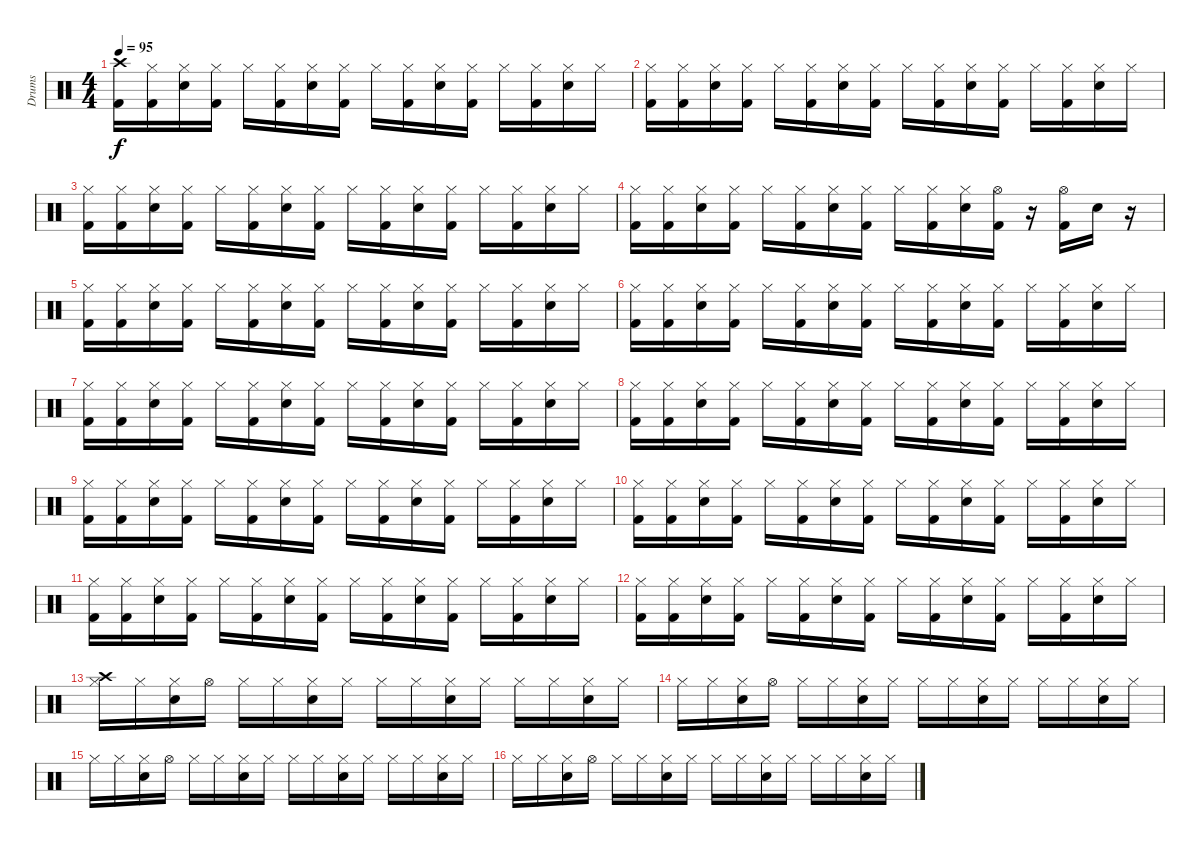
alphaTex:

\track ("Drums" "Drums") {instrument percussion}
\staff {score}
\articulation defaults
\ts (4 4)
\tempo 95
\clef neutral
\ks c
("Crash high (hit)" "Kick (hit) 2").16{dy f} ("Hi-Hat (closed)" "Kick (hit) 2").16 ("Hi-Hat (closed)" "Electric Snare (hit)").16 ("Hi-Hat (closed)" "Kick (hit) 2").16 "Hi-Hat (closed)".16 ("Hi-Hat (closed)" "Kick (hit) 2").16 ("Hi-Hat (closed)" "Electric Snare (hit)").16 ("Hi-Hat (closed)" "Kick (hit) 2").16 "Hi-Hat (closed)".16 ("Hi-Hat (closed)" "Kick (hit) 2").16 ("Hi-Hat (closed)" "Electric Snare (hit)").16 ("Hi-Hat (closed)" "Kick (hit) 2").16 "Hi-Hat (closed)".16 ("Hi-Hat (closed)" "Kick (hit) 2").16 ("Hi-Hat (closed)" "Electric Snare (hit)").16 "Hi-Hat (closed)".16 |
("Hi-Hat (closed)" "Kick (hit) 2").16 ("Hi-Hat (closed)" "Kick (hit) 2").16 ("Hi-Hat (closed)" "Electric Snare (hit)").16 ("Hi-Hat (closed)" "Kick (hit) 2").16 "Hi-Hat (closed)".16 ("Hi-Hat (closed)" "Kick (hit) 2").16 ("Hi-Hat (closed)" "Electric Snare (hit)").16 ("Hi-Hat (closed)" "Kick (hit) 2").16 "Hi-Hat (closed)".16 ("Hi-Hat (closed)" "Kick (hit) 2").16 ("Hi-Hat (closed)" "Electric Snare (hit)").16 ("Hi-Hat (closed)" "Kick (hit) 2").16 "Hi-Hat (closed)".16 ("Hi-Hat (closed)" "Kick (hit) 2").16 ("Hi-Hat (closed)" "Electric Snare (hit)").16 "Hi-Hat (closed)".16 |
("Hi-Hat (closed)" "Kick (hit) 2").16 ("Hi-Hat (closed)" "Kick (hit) 2").16 ("Hi-Hat (closed)" "Electric Snare (hit)").16 ("Hi-Hat (closed)" "Kick (hit) 2").16 "Hi-Hat (closed)".16 ("Hi-Hat (closed)" "Kick (hit) 2").16 ("Hi-Hat (closed)" "Electric Snare (hit)").16 ("Hi-Hat (closed)" "Kick (hit) 2").16 "Hi-Hat (closed)".16 ("Hi-Hat (closed)" "Kick (hit) 2").16 ("Hi-Hat (closed)" "Electric Snare (hit)").16 ("Hi-Hat (closed)" "Kick (hit) 2").16 "Hi-Hat (closed)".16 ("Hi-Hat (closed)" "Kick (hit) 2").16 ("Hi-Hat (closed)" "Electric Snare (hit)").16 "Hi-Hat (closed)".16 |
("Hi-Hat (closed)" "Kick (hit) 2").16 ("Hi-Hat (closed)" "Kick (hit) 2").16 ("Hi-Hat (closed)" "Electric Snare (hit)").16 ("Hi-Hat (closed)" "Kick (hit) 2").16 "Hi-Hat (closed)".16 ("Hi-Hat (closed)" "Kick (hit) 2").16 ("Hi-Hat (closed)" "Electric Snare (hit)").16 ("Hi-Hat (closed)" "Kick (hit) 2").16 "Hi-Hat (closed)".16 ("Hi-Hat (closed)" "Kick (hit) 2").16 ("Hi-Hat (closed)" "Electric Snare (hit)").16 ("Hi-Hat (open)" "Kick (hit) 2").16 r.16 ("Hi-Hat (open)" "Kick (hit) 2").16 "Electric Snare (hit)".16 r.16 |
("Hi-Hat (closed)" "Kick (hit) 2").16 ("Hi-Hat (closed)" "Kick (hit) 2").16 ("Hi-Hat (closed)" "Electric Snare (hit)").16 ("Hi-Hat (closed)" "Kick (hit) 2").16 "Hi-Hat (closed)".16 ("Hi-Hat (closed)" "Kick (hit) 2").16 ("Hi-Hat (closed)" "Electric Snare (hit)").16 ("Hi-Hat (closed)" "Kick (hit) 2").16 "Hi-Hat (closed)".16 ("Hi-Hat (closed)" "Kick (hit) 2").16 ("Hi-Hat (closed)" "Electric Snare (hit)").16 ("Hi-Hat (closed)" "Kick (hit) 2").16 "Hi-Hat (closed)".16 ("Hi-Hat (closed)" "Kick (hit) 2").16 ("Hi-Hat (closed)" "Electric Snare (hit)").16 "Hi-Hat (closed)".16 |
("Hi-Hat (closed)" "Kick (hit) 2").16 ("Hi-Hat (closed)" "Kick (hit) 2").16 ("Hi-Hat (closed)" "Electric Snare (hit)").16 ("Hi-Hat (closed)" "Kick (hit) 2").16 "Hi-Hat (closed)".16 ("Hi-Hat (closed)" "Kick (hit) 2").16 ("Hi-Hat (closed)" "Electric Snare (hit)").16 ("Hi-Hat (closed)" "Kick (hit) 2").16 "Hi-Hat (closed)".16 ("Hi-Hat (closed)" "Kick (hit) 2").16 ("Hi-Hat (closed)" "Electric Snare (hit)").16 ("Hi-Hat (closed)" "Kick (hit) 2").16 "Hi-Hat (closed)".16 ("Hi-Hat (closed)" "Kick (hit) 2").16 ("Hi-Hat (closed)" "Electric Snare (hit)").16 "Hi-Hat (closed)".16 |
("Hi-Hat (closed)" "Kick (hit) 2").16 ("Hi-Hat (closed)" "Kick (hit) 2").16 ("Hi-Hat (closed)" "Electric Snare (hit)").16 ("Hi-Hat (closed)" "Kick (hit) 2").16 "Hi-Hat (closed)".16 ("Hi-Hat (closed)" "Kick (hit) 2").16 ("Hi-Hat (closed)" "Electric Snare (hit)").16 ("Hi-Hat (closed)" "Kick (hit) 2").16 "Hi-Hat (closed)".16 ("Hi-Hat (closed)" "Kick (hit) 2").16 ("Hi-Hat (closed)" "Electric Snare (hit)").16 ("Hi-Hat (closed)" "Kick (hit) 2").16 "Hi-Hat (closed)".16 ("Hi-Hat (closed)" "Kick (hit) 2").16 ("Hi-Hat (closed)" "Electric Snare (hit)").16 "Hi-Hat (closed)".16 |
("Hi-Hat (closed)" "Kick (hit) 2").16 ("Hi-Hat (closed)" "Kick (hit) 2").16 ("Hi-Hat (closed)" "Electric Snare (hit)").16 ("Hi-Hat (closed)" "Kick (hit) 2").16 "Hi-Hat (closed)".16 ("Hi-Hat (closed)" "Kick (hit) 2").16 ("Hi-Hat (closed)" "Electric Snare (hit)").16 ("Hi-Hat (closed)" "Kick (hit) 2").16 "Hi-Hat (closed)".16 ("Hi-Hat (closed)" "Kick (hit) 2").16 ("Hi-Hat (closed)" "Electric Snare (hit)").16 ("Hi-Hat (closed)" "Kick (hit) 2").16 "Hi-Hat (closed)".16 ("Hi-Hat (closed)" "Kick (hit) 2").16 ("Hi-Hat (closed)" "Electric Snare (hit)").16 "Hi-Hat (closed)".16 |
("Hi-Hat (closed)" "Kick (hit) 2").16 ("Hi-Hat (closed)" "Kick (hit) 2").16 ("Hi-Hat (closed)" "Electric Snare (hit)").16 ("Hi-Hat (closed)" "Kick (hit) 2").16 "Hi-Hat (closed)".16 ("Hi-Hat (closed)" "Kick (hit) 2").16 ("Hi-Hat (closed)" "Electric Snare (hit)").16 ("Hi-Hat (closed)" "Kick (hit) 2").16 "Hi-Hat (closed)".16 ("Hi-Hat (closed)" "Kick (hit) 2").16 ("Hi-Hat (closed)" "Electric Snare (hit)").16 ("Hi-Hat (closed)" "Kick (hit) 2").16 "Hi-Hat (closed)".16 ("Hi-Hat (closed)" "Kick (hit) 2").16 ("Hi-Hat (closed)" "Electric Snare (hit)").16 "Hi-Hat (closed)".16 |
("Hi-Hat (closed)" "Kick (hit) 2").16 ("Hi-Hat (closed)" "Kick (hit) 2").16 ("Hi-Hat (closed)" "Electric Snare (hit)").16 ("Hi-Hat (closed)" "Kick (hit) 2").16 "Hi-Hat (closed)".16 ("Hi-Hat (closed)" "Kick (hit) 2").16 ("Hi-Hat (closed)" "Electric Snare (hit)").16 ("Hi-Hat (closed)" "Kick (hit) 2").16 "Hi-Hat (closed)".16 ("Hi-Hat (closed)" "Kick (hit) 2").16 ("Hi-Hat (closed)" "Electric Snare (hit)").16 ("Hi-Hat (closed)" "Kick (hit) 2").16 "Hi-Hat (closed)".16 ("Hi-Hat (closed)" "Kick (hit) 2").16 ("Hi-Hat (closed)" "Electric Snare (hit)").16 "Hi-Hat (closed)".16 |
("Hi-Hat (closed)" "Kick (hit) 2").16 ("Hi-Hat (closed)" "Kick (hit) 2").16 ("Hi-Hat (closed)" "Electric Snare (hit)").16 ("Hi-Hat (closed)" "Kick (hit) 2").16 "Hi-Hat (closed)".16 ("Hi-Hat (closed)" "Kick (hit) 2").16 ("Hi-Hat (closed)" "Electric Snare (hit)").16 ("Hi-Hat (closed)" "Kick (hit) 2").16 "Hi-Hat (closed)".16 ("Hi-Hat (closed)" "Kick (hit) 2").16 ("Hi-Hat (closed)" "Electric Snare (hit)").16 ("Hi-Hat (closed)" "Kick (hit) 2").16 "Hi-Hat (closed)".16 ("Hi-Hat (closed)" "Kick (hit) 2").16 ("Hi-Hat (closed)" "Electric Snare (hit)").16 "Hi-Hat (closed)".16 |
("Hi-Hat (closed)" "Kick (hit) 2").16 ("Hi-Hat (closed)" "Kick (hit) 2").16 ("Hi-Hat (closed)" "Electric Snare (hit)").16 ("Hi-Hat (closed)" "Kick (hit) 2").16 "Hi-Hat (closed)".16 ("Hi-Hat (closed)" "Kick (hit) 2").16 ("Hi-Hat (closed)" "Electric Snare (hit)").16 ("Hi-Hat (closed)" "Kick (hit) 2").16 "Hi-Hat (closed)".16 ("Hi-Hat (closed)" "Kick (hit) 2").16 ("Hi-Hat (closed)" "Electric Snare (hit)").16 ("Hi-Hat (closed)" "Kick (hit) 2").16 "Hi-Hat (closed)".16 ("Hi-Hat (closed)" "Kick (hit) 2").16 ("Hi-Hat (closed)" "Electric Snare (hit)").16 "Hi-Hat (closed)".16 |
("Crash high (hit)" "Hi-Hat (closed)").16 "Hi-Hat (closed)".16 ("Hi-Hat (closed)" "Electric Snare (hit)").16 "Hi-Hat (open)".16 "Hi-Hat (closed)".16 "Hi-Hat (closed)".16 ("Hi-Hat (closed)" "Electric Snare (hit)").16 "Hi-Hat (closed)".16 "Hi-Hat (closed)".16 "Hi-Hat (closed)".16 ("Hi-Hat (closed)" "Electric Snare (hit)").16 "Hi-Hat (closed)".16 "Hi-Hat (closed)".16 "Hi-Hat (closed)".16 ("Hi-Hat (closed)" "Electric Snare (hit)").16 "Hi-Hat (closed)".16 |
"Hi-Hat (closed)".16 "Hi-Hat (closed)".16 ("Hi-Hat (closed)" "Electric Snare (hit)").16 "Hi-Hat (open)".16 "Hi-Hat (closed)".16 "Hi-Hat (closed)".16 ("Hi-Hat (closed)" "Electric Snare (hit)").16 "Hi-Hat (closed)".16 "Hi-Hat (closed)".16 "Hi-Hat (closed)".16 ("Hi-Hat (closed)" "Electric Snare (hit)").16 "Hi-Hat (closed)".16 "Hi-Hat (closed)".16 "Hi-Hat (closed)".16 ("Hi-Hat (closed)" "Electric Snare (hit)").16 "Hi-Hat (closed)".16 |
"Hi-Hat (closed)".16 "Hi-Hat (closed)".16 ("Hi-Hat (closed)" "Electric Snare (hit)").16 "Hi-Hat (open)".16 "Hi-Hat (closed)".16 "Hi-Hat (closed)".16 ("Hi-Hat (closed)" "Electric Snare (hit)").16 "Hi-Hat (closed)".16 "Hi-Hat (closed)".16 "Hi-Hat (closed)".16 ("Hi-Hat (closed)" "Electric Snare (hit)").16 "Hi-Hat (closed)".16 "Hi-Hat (closed)".16 "Hi-Hat (closed)".16 ("Hi-Hat (closed)" "Electric Snare (hit)").16 "Hi-Hat (closed)".16 |
"Hi-Hat (closed)".16 "Hi-Hat (closed)".16 ("Hi-Hat (closed)" "Electric Snare (hit)").16 "Hi-Hat (open)".16 "Hi-Hat (closed)".16 "Hi-Hat (closed)".16 ("Hi-Hat (closed)" "Electric Snare (hit)").16 "Hi-Hat (closed)".16 "Hi-Hat (closed)".16 "Hi-Hat (closed)".16 ("Hi-Hat (closed)" "Electric Snare (hit)").16 "Hi-Hat (closed)".16 "Hi-Hat (closed)".16 "Hi-Hat (closed)".16 ("Hi-Hat (closed)" "Electric Snare (hit)").16 "Hi-Hat (closed)".16
